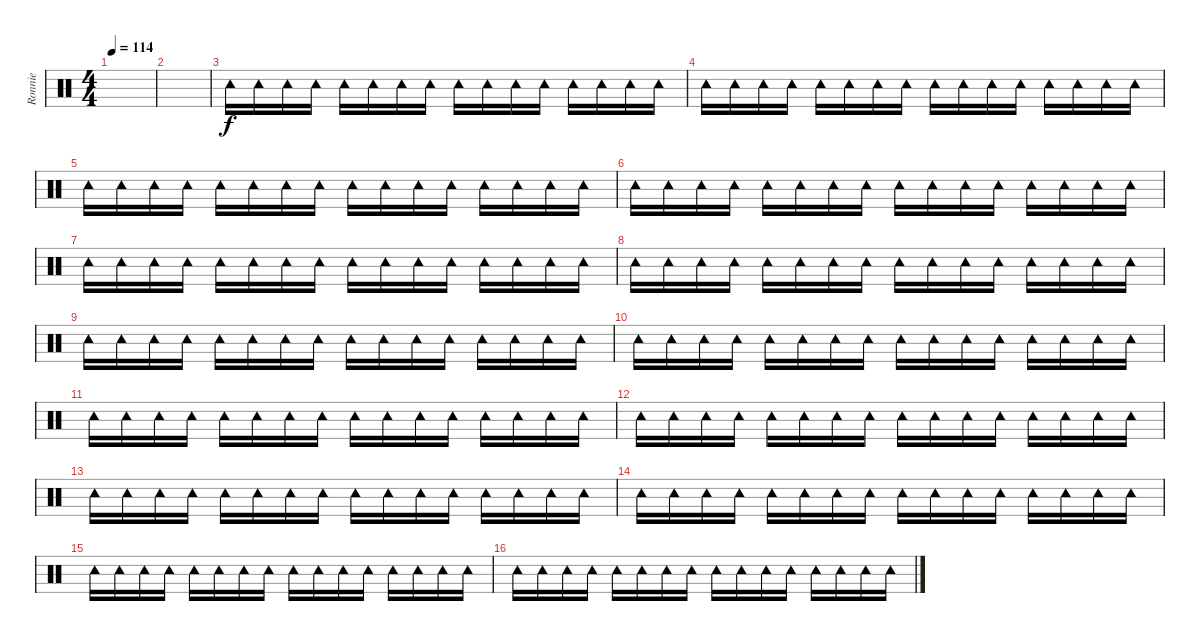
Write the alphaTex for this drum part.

\track ("Ronnie" "Ronnie") {instrument percussion}
\staff {score}
\articulation defaults
\ts (4 4)
\tempo 114
\clef neutral
\ks c
|
|
"Tambourine (hit)".16 "Tambourine (hit)".16 "Tambourine (hit)".16 "Tambourine (hit)".16 "Tambourine (hit)".16 "Tambourine (hit)".16 "Tambourine (hit)".16 "Tambourine (hit)".16 "Tambourine (hit)".16 "Tambourine (hit)".16 "Tambourine (hit)".16 "Tambourine (hit)".16 "Tambourine (hit)".16 "Tambourine (hit)".16 "Tambourine (hit)".16 "Tambourine (hit)".16 |
"Tambourine (hit)".16 "Tambourine (hit)".16 "Tambourine (hit)".16 "Tambourine (hit)".16 "Tambourine (hit)".16 "Tambourine (hit)".16 "Tambourine (hit)".16 "Tambourine (hit)".16 "Tambourine (hit)".16 "Tambourine (hit)".16 "Tambourine (hit)".16 "Tambourine (hit)".16 "Tambourine (hit)".16 "Tambourine (hit)".16 "Tambourine (hit)".16 "Tambourine (hit)".16 |
"Tambourine (hit)".16 "Tambourine (hit)".16 "Tambourine (hit)".16 "Tambourine (hit)".16 "Tambourine (hit)".16 "Tambourine (hit)".16 "Tambourine (hit)".16 "Tambourine (hit)".16 "Tambourine (hit)".16 "Tambourine (hit)".16 "Tambourine (hit)".16 "Tambourine (hit)".16 "Tambourine (hit)".16 "Tambourine (hit)".16 "Tambourine (hit)".16 "Tambourine (hit)".16 |
"Tambourine (hit)".16 "Tambourine (hit)".16 "Tambourine (hit)".16 "Tambourine (hit)".16 "Tambourine (hit)".16 "Tambourine (hit)".16 "Tambourine (hit)".16 "Tambourine (hit)".16 "Tambourine (hit)".16 "Tambourine (hit)".16 "Tambourine (hit)".16 "Tambourine (hit)".16 "Tambourine (hit)".16 "Tambourine (hit)".16 "Tambourine (hit)".16 "Tambourine (hit)".16 |
"Tambourine (hit)".16 "Tambourine (hit)".16 "Tambourine (hit)".16 "Tambourine (hit)".16 "Tambourine (hit)".16 "Tambourine (hit)".16 "Tambourine (hit)".16 "Tambourine (hit)".16 "Tambourine (hit)".16 "Tambourine (hit)".16 "Tambourine (hit)".16 "Tambourine (hit)".16 "Tambourine (hit)".16 "Tambourine (hit)".16 "Tambourine (hit)".16 "Tambourine (hit)".16 |
"Tambourine (hit)".16 "Tambourine (hit)".16 "Tambourine (hit)".16 "Tambourine (hit)".16 "Tambourine (hit)".16 "Tambourine (hit)".16 "Tambourine (hit)".16 "Tambourine (hit)".16 "Tambourine (hit)".16 "Tambourine (hit)".16 "Tambourine (hit)".16 "Tambourine (hit)".16 "Tambourine (hit)".16 "Tambourine (hit)".16 "Tambourine (hit)".16 "Tambourine (hit)".16 |
"Tambourine (hit)".16 "Tambourine (hit)".16 "Tambourine (hit)".16 "Tambourine (hit)".16 "Tambourine (hit)".16 "Tambourine (hit)".16 "Tambourine (hit)".16 "Tambourine (hit)".16 "Tambourine (hit)".16 "Tambourine (hit)".16 "Tambourine (hit)".16 "Tambourine (hit)".16 "Tambourine (hit)".16 "Tambourine (hit)".16 "Tambourine (hit)".16 "Tambourine (hit)".16 |
"Tambourine (hit)".16 "Tambourine (hit)".16 "Tambourine (hit)".16 "Tambourine (hit)".16 "Tambourine (hit)".16 "Tambourine (hit)".16 "Tambourine (hit)".16 "Tambourine (hit)".16 "Tambourine (hit)".16 "Tambourine (hit)".16 "Tambourine (hit)".16 "Tambourine (hit)".16 "Tambourine (hit)".16 "Tambourine (hit)".16 "Tambourine (hit)".16 "Tambourine (hit)".16 |
"Tambourine (hit)".16 "Tambourine (hit)".16 "Tambourine (hit)".16 "Tambourine (hit)".16 "Tambourine (hit)".16 "Tambourine (hit)".16 "Tambourine (hit)".16 "Tambourine (hit)".16 "Tambourine (hit)".16 "Tambourine (hit)".16 "Tambourine (hit)".16 "Tambourine (hit)".16 "Tambourine (hit)".16 "Tambourine (hit)".16 "Tambourine (hit)".16 "Tambourine (hit)".16 |
"Tambourine (hit)".16 "Tambourine (hit)".16 "Tambourine (hit)".16 "Tambourine (hit)".16 "Tambourine (hit)".16 "Tambourine (hit)".16 "Tambourine (hit)".16 "Tambourine (hit)".16 "Tambourine (hit)".16 "Tambourine (hit)".16 "Tambourine (hit)".16 "Tambourine (hit)".16 "Tambourine (hit)".16 "Tambourine (hit)".16 "Tambourine (hit)".16 "Tambourine (hit)".16 |
"Tambourine (hit)".16 "Tambourine (hit)".16 "Tambourine (hit)".16 "Tambourine (hit)".16 "Tambourine (hit)".16 "Tambourine (hit)".16 "Tambourine (hit)".16 "Tambourine (hit)".16 "Tambourine (hit)".16 "Tambourine (hit)".16 "Tambourine (hit)".16 "Tambourine (hit)".16 "Tambourine (hit)".16 "Tambourine (hit)".16 "Tambourine (hit)".16 "Tambourine (hit)".16 |
"Tambourine (hit)".16 "Tambourine (hit)".16 "Tambourine (hit)".16 "Tambourine (hit)".16 "Tambourine (hit)".16 "Tambourine (hit)".16 "Tambourine (hit)".16 "Tambourine (hit)".16 "Tambourine (hit)".16 "Tambourine (hit)".16 "Tambourine (hit)".16 "Tambourine (hit)".16 "Tambourine (hit)".16 "Tambourine (hit)".16 "Tambourine (hit)".16 "Tambourine (hit)".16 |
"Tambourine (hit)".16 "Tambourine (hit)".16 "Tambourine (hit)".16 "Tambourine (hit)".16 "Tambourine (hit)".16 "Tambourine (hit)".16 "Tambourine (hit)".16 "Tambourine (hit)".16 "Tambourine (hit)".16 "Tambourine (hit)".16 "Tambourine (hit)".16 "Tambourine (hit)".16 "Tambourine (hit)".16 "Tambourine (hit)".16 "Tambourine (hit)".16 "Tambourine (hit)".16 |
"Tambourine (hit)".16 "Tambourine (hit)".16 "Tambourine (hit)".16 "Tambourine (hit)".16 "Tambourine (hit)".16 "Tambourine (hit)".16 "Tambourine (hit)".16 "Tambourine (hit)".16 "Tambourine (hit)".16 "Tambourine (hit)".16 "Tambourine (hit)".16 "Tambourine (hit)".16 "Tambourine (hit)".16 "Tambourine (hit)".16 "Tambourine (hit)".16 "Tambourine (hit)".16
